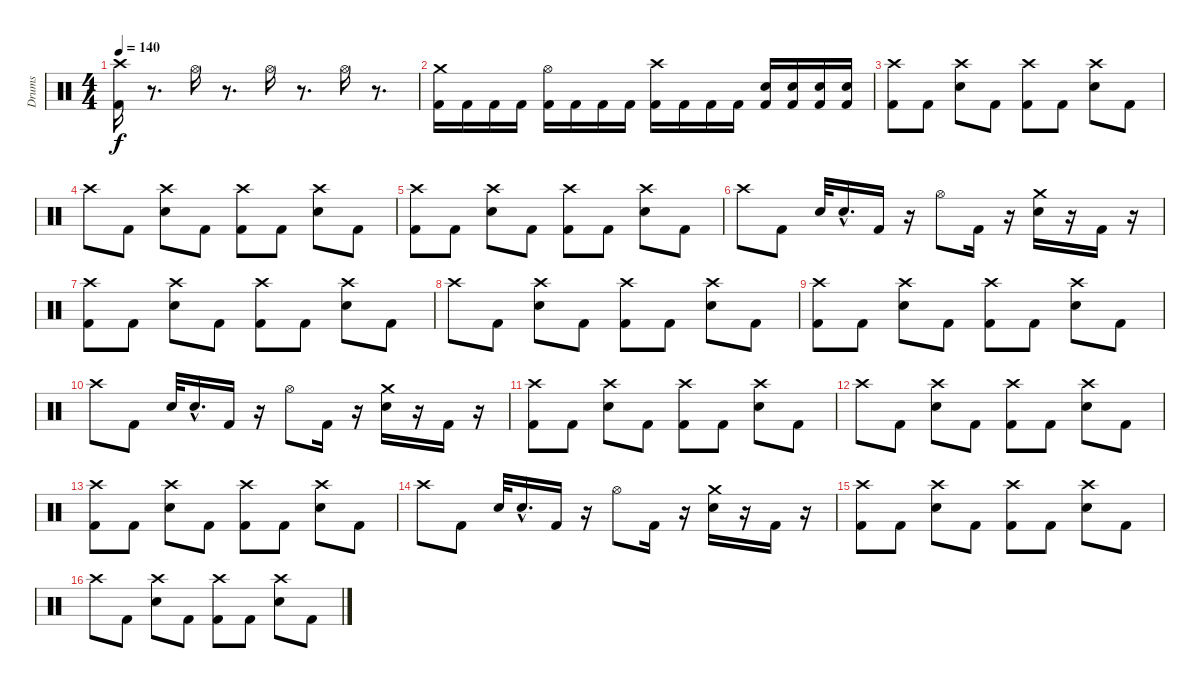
\track ("Drums" "Drums") {instrument percussion}
\staff {score}
\articulation defaults
\ts (4 4)
\tempo 140
\clef neutral
\ks c
("Kick (hit) 2" "Crash high (hit)").16{dy f} r.8{d} "Hi-Hat (open)".16 r.8{d} "Hi-Hat (open)".16 r.8{d} "Hi-Hat (open)".16 r.8{d} |
("Crash medium (hit)" "Kick (hit) 2").16 "Kick (hit) 2".16 "Kick (hit) 2".16 "Kick (hit) 2".16 ("Hi-Hat (open)" "Kick (hit) 2").16 "Kick (hit) 2".16 "Kick (hit) 2".16 "Kick (hit) 2".16 ("Crash high (hit)" "Kick (hit) 2").16 "Kick (hit) 2".16 "Kick (hit) 2".16 "Kick (hit) 2".16 ("Electric Snare (hit)" "Kick (hit) 2").16 ("Electric Snare (hit)" "Kick (hit) 2").16 ("Electric Snare (hit)" "Kick (hit) 2").16 ("Electric Snare (hit)" "Kick (hit) 2").16 |
("Kick (hit) 2" "Crash high (hit)").8 "Kick (hit) 2".8 ("Electric Snare (hit)" "Crash high (hit)").8 "Kick (hit) 2".8 ("Kick (hit) 2" "Crash high (hit)").8 "Kick (hit) 2".8 ("Electric Snare (hit)" "Crash high (hit)").8 "Kick (hit) 2".8 |
"Crash high (hit)".8 "Kick (hit) 2".8 ("Electric Snare (hit)" "Crash high (hit)").8 "Kick (hit) 2".8 ("Kick (hit) 2" "Crash high (hit)").8 "Kick (hit) 2".8 ("Electric Snare (hit)" "Crash high (hit)").8 "Kick (hit) 2".8 |
("Kick (hit) 2" "Crash high (hit)").8 "Kick (hit) 2".8 ("Electric Snare (hit)" "Crash high (hit)").8 "Kick (hit) 2".8 ("Kick (hit) 2" "Crash high (hit)").8 "Kick (hit) 2".8 ("Electric Snare (hit)" "Crash high (hit)").8 "Kick (hit) 2".8 |
"Crash high (hit)".8 "Kick (hit) 2".8 "Electric Snare (hit)".32 "Electric Snare (hit)"{hac}.16{d} "Kick (hit) 2".16 r.16 "Hi-Hat (open)".8 "Kick (hit) 2".16 r.16 ("Crash medium (hit)" "Electric Snare (hit)").16 r.16 "Kick (hit) 2".16 r.16 |
("Kick (hit) 2" "Crash high (hit)").8 "Kick (hit) 2".8 ("Electric Snare (hit)" "Crash high (hit)").8 "Kick (hit) 2".8 ("Kick (hit) 2" "Crash high (hit)").8 "Kick (hit) 2".8 ("Electric Snare (hit)" "Crash high (hit)").8 "Kick (hit) 2".8 |
"Crash high (hit)".8 "Kick (hit) 2".8 ("Electric Snare (hit)" "Crash high (hit)").8 "Kick (hit) 2".8 ("Kick (hit) 2" "Crash high (hit)").8 "Kick (hit) 2".8 ("Electric Snare (hit)" "Crash high (hit)").8 "Kick (hit) 2".8 |
("Kick (hit) 2" "Crash high (hit)").8 "Kick (hit) 2".8 ("Electric Snare (hit)" "Crash high (hit)").8 "Kick (hit) 2".8 ("Kick (hit) 2" "Crash high (hit)").8 "Kick (hit) 2".8 ("Electric Snare (hit)" "Crash high (hit)").8 "Kick (hit) 2".8 |
"Crash high (hit)".8 "Kick (hit) 2".8 "Electric Snare (hit)".32 "Electric Snare (hit)"{hac}.16{d} "Kick (hit) 2".16 r.16 "Hi-Hat (open)".8 "Kick (hit) 2".16 r.16 ("Crash medium (hit)" "Electric Snare (hit)").16 r.16 "Kick (hit) 2".16 r.16 |
("Kick (hit) 2" "Crash high (hit)").8 "Kick (hit) 2".8 ("Electric Snare (hit)" "Crash high (hit)").8 "Kick (hit) 2".8 ("Kick (hit) 2" "Crash high (hit)").8 "Kick (hit) 2".8 ("Electric Snare (hit)" "Crash high (hit)").8 "Kick (hit) 2".8 |
"Crash high (hit)".8 "Kick (hit) 2".8 ("Electric Snare (hit)" "Crash high (hit)").8 "Kick (hit) 2".8 ("Kick (hit) 2" "Crash high (hit)").8 "Kick (hit) 2".8 ("Electric Snare (hit)" "Crash high (hit)").8 "Kick (hit) 2".8 |
("Kick (hit) 2" "Crash high (hit)").8 "Kick (hit) 2".8 ("Electric Snare (hit)" "Crash high (hit)").8 "Kick (hit) 2".8 ("Kick (hit) 2" "Crash high (hit)").8 "Kick (hit) 2".8 ("Electric Snare (hit)" "Crash high (hit)").8 "Kick (hit) 2".8 |
"Crash high (hit)".8 "Kick (hit) 2".8 "Electric Snare (hit)".32 "Electric Snare (hit)"{hac}.16{d} "Kick (hit) 2".16 r.16 "Hi-Hat (open)".8 "Kick (hit) 2".16 r.16 ("Crash medium (hit)" "Electric Snare (hit)").16 r.16 "Kick (hit) 2".16 r.16 |
("Kick (hit) 2" "Crash high (hit)").8 "Kick (hit) 2".8 ("Electric Snare (hit)" "Crash high (hit)").8 "Kick (hit) 2".8 ("Kick (hit) 2" "Crash high (hit)").8 "Kick (hit) 2".8 ("Electric Snare (hit)" "Crash high (hit)").8 "Kick (hit) 2".8 |
"Crash high (hit)".8 "Kick (hit) 2".8 ("Electric Snare (hit)" "Crash high (hit)").8 "Kick (hit) 2".8 ("Kick (hit) 2" "Crash high (hit)").8 "Kick (hit) 2".8 ("Electric Snare (hit)" "Crash high (hit)").8 "Kick (hit) 2".8
